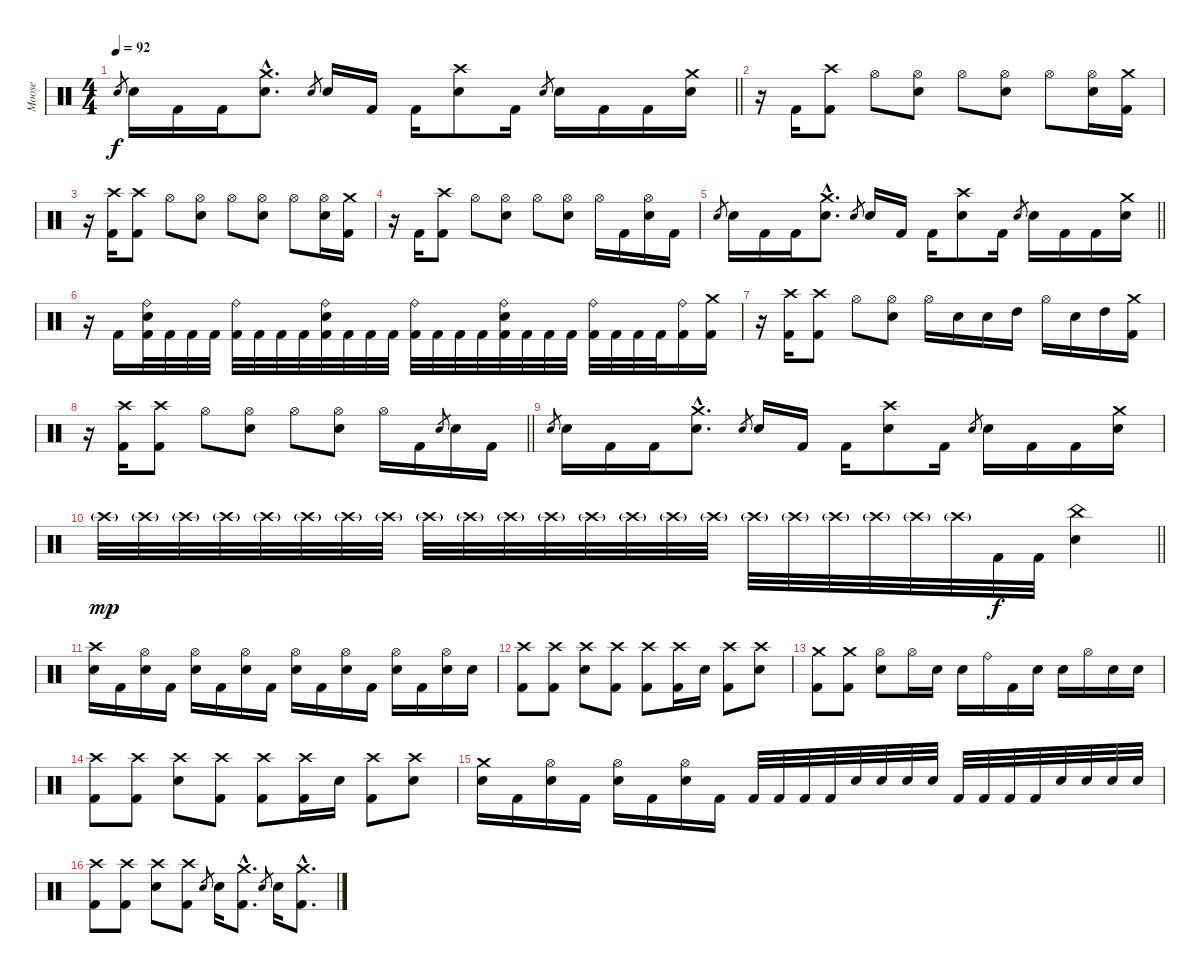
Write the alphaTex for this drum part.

\track ("Moose" "Moose") {instrument percussion}
\staff {score}
\articulation defaults
\ts (4 4)
\tempo 92
\clef neutral
\barLineRight lightlight
\ks c "Electric Snare (hit)".8{gr dy f} "Electric Snare (hit)".16 "Kick (hit) 2".16 "Kick (hit) 2".16
("Crash medium (hit)"{hac} "Electric Snare (hit)"{hac}).8{d} "Electric Snare (hit)".8{gr} "Electric Snare (hit)".16 "Kick (hit) 2".16 "Kick (hit) 2".16 ("Crash high (hit)" "Electric Snare (hit)").8 "Kick (hit) 2".16 "Electric Snare (hit)".8{gr} "Electric Snare (hit)".16 "Kick (hit) 2".16 "Kick (hit) 2".16 ("Crash medium (hit)" "Electric Snare (hit)").16 |
r.16 "Kick (hit) 2".16 ("Crash high (hit)" "Kick (hit) 2").8 "Hi-Hat (open)".8 ("Hi-Hat (open)" "Electric Snare (hit)").8 "Hi-Hat (open)".8 ("Hi-Hat (open)" "Electric Snare (hit)").8 "Hi-Hat (open)".8 ("Hi-Hat (open)" "Electric Snare (hit)").16 ("Crash medium (hit)" "Kick (hit) 2").16 |
r.16 ("Crash high (hit)" "Kick (hit) 2").16 ("Crash high (hit)" "Kick (hit) 2").8 "Hi-Hat (open)".8 ("Hi-Hat (open)" "Electric Snare (hit)").8 "Hi-Hat (open)".8 ("Hi-Hat (open)" "Electric Snare (hit)").8 "Hi-Hat (open)".8 ("Hi-Hat (open)" "Electric Snare (hit)").16 ("Crash medium (hit)" "Kick (hit) 2").16 |
r.16 "Kick (hit) 2".16 ("Crash high (hit)" "Kick (hit) 2").8 "Hi-Hat (open)".8 ("Hi-Hat (open)" "Electric Snare (hit)").8 "Hi-Hat (open)".8 ("Hi-Hat (open)" "Electric Snare (hit)").8 "Hi-Hat (open)".16 "Kick (hit) 2".16 ("Hi-Hat (open)" "Electric Snare (hit)").16 "Kick (hit) 2".16 |
\barLineRight lightlight "Electric Snare (hit)".8{gr} "Electric Snare (hit)".16 "Kick (hit) 2".16 "Kick (hit) 2".16
("Crash medium (hit)"{hac} "Electric Snare (hit)"{hac}).8{d} "Electric Snare (hit)".8{gr} "Electric Snare (hit)".16 "Kick (hit) 2".16 "Kick (hit) 2".16 ("Crash high (hit)" "Electric Snare (hit)").8 "Kick (hit) 2".16 "Electric Snare (hit)".8{gr} "Electric Snare (hit)".16 "Kick (hit) 2".16 "Kick (hit) 2".16 ("Crash medium (hit)" "Electric Snare (hit)").16 |
r.16 "Kick (hit) 2".16 ("Ride (bell)" "Electric Snare (hit)" "Kick (hit) 2").32 "Kick (hit) 2".32 "Kick (hit) 2".32 "Kick (hit) 2".32 ("Ride (bell)" "Kick (hit) 2").32 "Kick (hit) 2".32 "Kick (hit) 2".32 "Kick (hit) 2".32 ("Ride (bell)" "Electric Snare (hit)" "Kick (hit) 2").32 "Kick (hit) 2".32 "Kick (hit) 2".32 "Kick (hit) 2".32 ("Ride (bell)" "Kick (hit) 2").32 "Kick (hit) 2".32 "Kick (hit) 2".32 "Kick (hit) 2".32 ("Ride (bell)" "Electric Snare (hit)" "Kick (hit) 2").32 "Kick (hit) 2".32 "Kick (hit) 2".32 "Kick (hit) 2".32 ("Ride (bell)" "Kick (hit) 2").32 "Kick (hit) 2".32 "Kick (hit) 2".32 "Kick (hit) 2".32 ("Ride (bell)" "Kick (hit) 2").16 ("Crash medium (hit)" "Kick (hit) 2").16 |
r.16 ("Crash high (hit)" "Kick (hit) 2").16 ("Crash high (hit)" "Kick (hit) 2").8 "Hi-Hat (open)".8 ("Hi-Hat (open)" "Electric Snare (hit)").8 "Hi-Hat (open)".16 "Electric Snare (hit)".16 "Electric Snare (hit)".16 "High Tom (hit)".16 "Hi-Hat (open)".16 "Electric Snare (hit)".16 "High Tom (hit)".16 ("Crash medium (hit)" "Kick (hit) 2").16 |
\barLineRight lightlight
r.16 ("Crash high (hit)" "Kick (hit) 2").16 ("Crash high (hit)" "Kick (hit) 2").8 "Hi-Hat (open)".8 ("Hi-Hat (open)" "Electric Snare (hit)").8 "Hi-Hat (open)".8 ("Hi-Hat (open)" "Electric Snare (hit)").8 "Hi-Hat (open)".16 "Kick (hit) 2".16 "Electric Snare (hit)".8{gr} "Electric Snare (hit)".16 "Kick (hit) 2".16 |
"Electric Snare (hit)".8{gr} "Electric Snare (hit)".16 "Kick (hit) 2".16 "Kick (hit) 2".16 ("Crash medium (hit)"{hac} "Electric Snare (hit)"{hac}).8{d} "Electric Snare (hit)".8{gr} "Electric Snare (hit)".16 "Kick (hit) 2".16 "Kick (hit) 2".16 ("Crash high (hit)" "Electric Snare (hit)").8 "Kick (hit) 2".16 "Electric Snare (hit)".8{gr} "Electric Snare (hit)".16 "Kick (hit) 2".16 "Kick (hit) 2".16 ("Crash medium (hit)" "Electric Snare (hit)").16 |
\barLineRight lightlight "Crash high (hit)"{g}.32{dy mp} "Crash high (hit)"{g}.32 "Crash high (hit)"{g}.32 "Crash high (hit)"{g}.32 "Crash high (hit)"{g}.32 "Crash high (hit)"{g}.32 "Crash high (hit)"{g}.32 "Crash high (hit)"{g}.32 "Crash high (hit)"{g}.32 "Crash high (hit)"{g}.32 "Crash high (hit)"{g}.32 "Crash high (hit)"{g}.32 "Crash high (hit)"{g}.32 "Crash high (hit)"{g}.32 "Crash high (hit)"{g}.32 "Crash high (hit)"{g}.32 "Crash high (hit)"{g}.32 "Crash high (hit)"{g}.32 "Crash high (hit)"{g}.32 "Crash high (hit)"{g}.32 "Crash high (hit)"{g}.32 "Crash high (hit)"{g}.32 "Kick (hit) 2".32{dy f} "Kick (hit) 2".32
("China (hit)" "Electric Snare (hit)").4 |
("Crash high (hit)" "Electric Snare (hit)").16 "Kick (hit) 2".16 ("Hi-Hat (open)" "Electric Snare (hit)").16 "Kick (hit) 2".16 ("Hi-Hat (open)" "Electric Snare (hit)").16 "Kick (hit) 2".16 ("Hi-Hat (open)" "Electric Snare (hit)").16 "Kick (hit) 2".16 ("Hi-Hat (open)" "Electric Snare (hit)").16 "Kick (hit) 2".16 ("Hi-Hat (open)" "Electric Snare (hit)").16 "Kick (hit) 2".16 ("Hi-Hat (open)" "Electric Snare (hit)").16 "Kick (hit) 2".16 ("Hi-Hat (open)" "Electric Snare (hit)").16 "Electric Snare (hit)".16 |
("Crash high (hit)" "Kick (hit) 2").8 ("Crash high (hit)" "Kick (hit) 2").8 ("Crash high (hit)" "Electric Snare (hit)").8 ("Crash high (hit)" "Kick (hit) 2").8 ("Crash high (hit)" "Kick (hit) 2").8 ("Crash high (hit)" "Kick (hit) 2").16 "Electric Snare (hit)".16 ("Crash high (hit)" "Kick (hit) 2").8 ("Crash high (hit)" "Electric Snare (hit)").8 |
("Crash medium (hit)" "Kick (hit) 2").8 ("Crash medium (hit)" "Kick (hit) 2").8 ("Hi-Hat (open)" "Electric Snare (hit)").8 "Hi-Hat (open)".16 "Electric Snare (hit)".16 "Electric Snare (hit)".16 "Ride (bell)".16 "Kick (hit) 2".16 "Electric Snare (hit)".16 "Electric Snare (hit)".16 "Hi-Hat (open)".16 "Electric Snare (hit)".16 "Electric Snare (hit)".16 |
("Crash high (hit)" "Kick (hit) 2").8 ("Crash high (hit)" "Kick (hit) 2").8 ("Crash high (hit)" "Electric Snare (hit)").8 ("Crash high (hit)" "Kick (hit) 2").8 ("Crash high (hit)" "Kick (hit) 2").8 ("Crash high (hit)" "Kick (hit) 2").16 "Electric Snare (hit)".16 ("Crash high (hit)" "Kick (hit) 2").8 ("Crash high (hit)" "Electric Snare (hit)").8 |
("Crash medium (hit)" "Electric Snare (hit)").16 "Kick (hit) 2".16 ("Hi-Hat (open)" "Electric Snare (hit)").16 "Kick (hit) 2".16 ("Hi-Hat (open)" "Electric Snare (hit)").16 "Kick (hit) 2".16 ("Hi-Hat (open)" "Electric Snare (hit)").16 "Kick (hit) 2".16 "Kick (hit) 2".32 "Kick (hit) 2".32 "Kick (hit) 2".32 "Kick (hit) 2".32 "Electric Snare (hit)".32 "Electric Snare (hit)".32 "Electric Snare (hit)".32 "Electric Snare (hit)".32 "Kick (hit) 2".32 "Kick (hit) 2".32 "Kick (hit) 2".32 "Kick (hit) 2".32 "Electric Snare (hit)".32 "Electric Snare (hit)".32 "Electric Snare (hit)".32 "Electric Snare (hit)".32 |
("Crash high (hit)" "Kick (hit) 2").8 ("Crash high (hit)" "Kick (hit) 2").8 ("Crash high (hit)" "Electric Snare (hit)").8 ("Crash high (hit)" "Kick (hit) 2").8 "Electric Snare (hit)".8{gr} "Electric Snare (hit)".16 ("Crash medium (hit)"{hac} "Kick (hit) 2"{hac}).8{d} "Electric Snare (hit)".8{gr} "Electric Snare (hit)".16 ("Crash medium (hit)"{hac} "Kick (hit) 2"{hac}).8{d}
